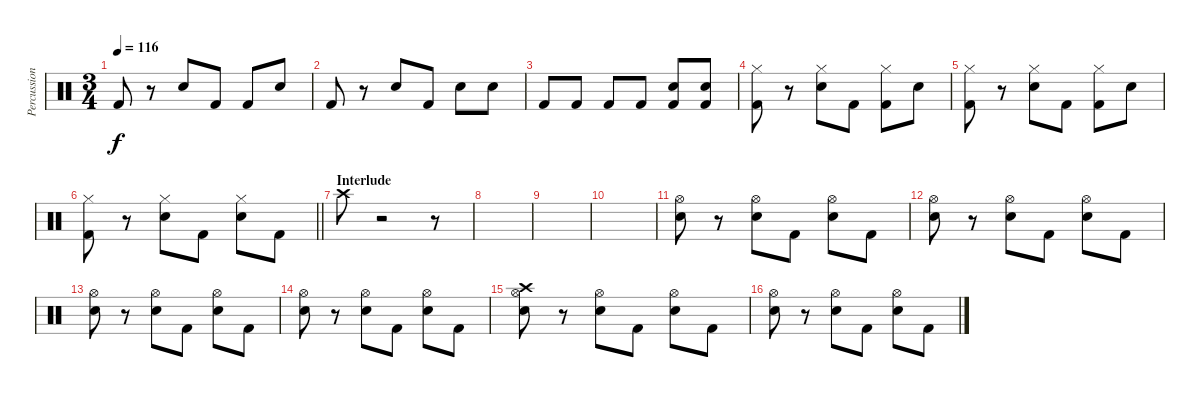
\track ("Percussion" "Percussion") {instrument percussion}
\staff {score}
\articulation defaults
\ts (3 4)
\tempo 116
\clef neutral
\ks c "Kick (hit) 2".8{dy f}
r.8 "Electric Snare (hit)".8 "Kick (hit) 2".8 "Kick (hit) 2".8 "Electric Snare (hit)".8 |
"Kick (hit) 2".8 r.8 "Electric Snare (hit)".8 "Kick (hit) 2".8 "Electric Snare (hit)".8 "Electric Snare (hit)".8 |
"Kick (hit) 2".8 "Kick (hit) 2".8 "Kick (hit) 2".8 "Kick (hit) 2".8 ("Electric Snare (hit)" "Kick (hit) 2").8 ("Electric Snare (hit)" "Kick (hit) 2").8 |
("Hi-Hat (closed)" "Kick (hit) 2").8 r.8 ("Hi-Hat (closed)" "Electric Snare (hit)").8 "Kick (hit) 2".8 ("Hi-Hat (closed)" "Kick (hit) 2").8 "Electric Snare (hit)".8 |
("Hi-Hat (closed)" "Kick (hit) 2").8 r.8 ("Hi-Hat (closed)" "Electric Snare (hit)").8 "Kick (hit) 2".8 ("Hi-Hat (closed)" "Kick (hit) 2").8 "Electric Snare (hit)".8 |
\barLineRight lightlight
("Hi-Hat (closed)" "Kick (hit) 2").8 r.8 ("Hi-Hat (closed)" "Electric Snare (hit)").8 "Kick (hit) 2".8 ("Hi-Hat (closed)" "Electric Snare (hit)").8 "Kick (hit) 2".8 |
\section ("" "Interlude")
"Crash high (hit)".8 r.2 r.8 |
|
|
|
("Hi-Hat (open)" "Electric Snare (hit)").8{volume 16} r.8 ("Hi-Hat (open)" "Electric Snare (hit)").8 "Kick (hit) 2".8 ("Hi-Hat (open)" "Electric Snare (hit)").8 "Kick (hit) 2".8 |
("Hi-Hat (open)" "Electric Snare (hit)").8 r.8 ("Hi-Hat (open)" "Electric Snare (hit)").8 "Kick (hit) 2".8 ("Hi-Hat (open)" "Electric Snare (hit)").8 "Kick (hit) 2".8 |
("Hi-Hat (open)" "Electric Snare (hit)").8 r.8 ("Hi-Hat (open)" "Electric Snare (hit)").8 "Kick (hit) 2".8 ("Hi-Hat (open)" "Electric Snare (hit)").8 "Kick (hit) 2".8 |
("Hi-Hat (open)" "Electric Snare (hit)").8 r.8 ("Hi-Hat (open)" "Electric Snare (hit)").8 "Kick (hit) 2".8 ("Hi-Hat (open)" "Electric Snare (hit)").8 "Kick (hit) 2".8 |
("Crash high (hit)" "Hi-Hat (open)" "Electric Snare (hit)").8 r.8 ("Hi-Hat (open)" "Electric Snare (hit)").8 "Kick (hit) 2".8 ("Hi-Hat (open)" "Electric Snare (hit)").8 "Kick (hit) 2".8 |
("Hi-Hat (open)" "Electric Snare (hit)").8 r.8 ("Hi-Hat (open)" "Electric Snare (hit)").8 "Kick (hit) 2".8 ("Hi-Hat (open)" "Electric Snare (hit)").8 "Kick (hit) 2".8
